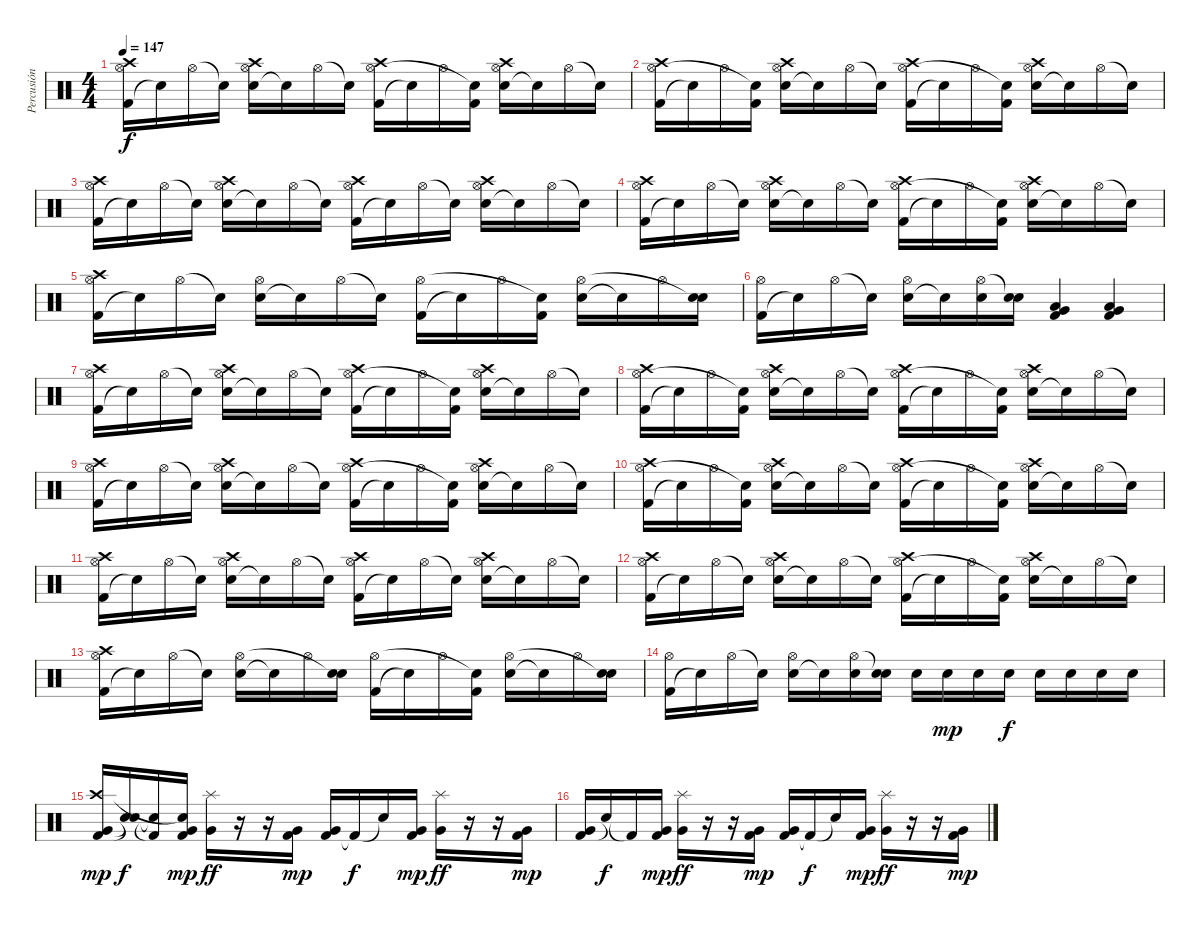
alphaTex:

\track ("Percusión" "Percusión") {instrument percussion}
\staff {score}
\articulation defaults
\ts (4 4)
\tempo 147
\clef neutral
\ks c
("Kick (hit) 2" "Hi-Hat (open)" "Crash high (hit)").16{dy f} "Snare (hit)"{t}.16 "Hi-Hat (open)".16 "Snare (hit)"{t}.16 ("Electric Snare (hit)" "Hi-Hat (open)" "Crash high (hit)").16 "Snare (hit)"{t}.16 "Hi-Hat (open)".16 "Snare (hit)"{t}.16 ("Kick (hit) 2" "Hi-Hat (open)" "Crash high (hit)").16 "Snare (hit)"{t}.16 "Hi-Hat (open)".16 ("Kick (hit) 2" "Snare (hit)"{t}).16 ("Electric Snare (hit)" "Hi-Hat (open)" "Crash high (hit)").16 "Snare (hit)"{t}.16 "Hi-Hat (open)".16 "Snare (hit)"{t}.16 |
("Kick (hit) 2" "Hi-Hat (open)" "Crash high (hit)").16 "Snare (hit)"{t}.16 "Hi-Hat (open)".16 ("Kick (hit) 2" "Snare (hit)"{t}).16 ("Electric Snare (hit)" "Hi-Hat (open)" "Crash high (hit)").16 "Snare (hit)"{t}.16 "Hi-Hat (open)".16 "Snare (hit)"{t}.16 ("Kick (hit) 2" "Hi-Hat (open)" "Crash high (hit)").16 "Snare (hit)"{t}.16 "Hi-Hat (open)".16 ("Kick (hit) 2" "Snare (hit)"{t}).16 ("Electric Snare (hit)" "Hi-Hat (open)" "Crash high (hit)").16 "Snare (hit)"{t}.16 "Hi-Hat (open)".16 "Snare (hit)"{t}.16 |
("Kick (hit) 2" "Hi-Hat (open)" "Crash high (hit)").16 "Snare (hit)"{t}.16 "Hi-Hat (open)".16 "Snare (hit)"{t}.16 ("Electric Snare (hit)" "Hi-Hat (open)" "Crash high (hit)").16 "Snare (hit)"{t}.16 "Hi-Hat (open)".16 "Snare (hit)"{t}.16 ("Kick (hit) 2" "Hi-Hat (open)" "Crash high (hit)").16 "Snare (hit)"{t}.16 "Hi-Hat (open)".16 "Snare (hit)"{t}.16 ("Electric Snare (hit)" "Hi-Hat (open)" "Crash high (hit)").16 "Snare (hit)"{t}.16 "Hi-Hat (open)".16 "Snare (hit)"{t}.16 |
("Kick (hit) 2" "Hi-Hat (open)" "Crash high (hit)").16 "Snare (hit)"{t}.16 "Hi-Hat (open)".16 "Snare (hit)"{t}.16 ("Electric Snare (hit)" "Hi-Hat (open)" "Crash high (hit)").16 "Snare (hit)"{t}.16 "Hi-Hat (open)".16 "Snare (hit)"{t}.16 ("Kick (hit) 2" "Hi-Hat (open)" "Crash high (hit)").16 "Snare (hit)"{t}.16 "Hi-Hat (open)".16 ("Kick (hit) 2" "Snare (hit)"{t}).16 ("Electric Snare (hit)" "Hi-Hat (open)" "Crash high (hit)").16 "Snare (hit)"{t}.16 "Hi-Hat (open)".16 "Snare (hit)"{t}.16 |
("Kick (hit) 2" "Hi-Hat (open)" "Crash high (hit)").16 "Snare (hit)"{t}.16 "Hi-Hat (open)".16 "Snare (hit)"{t}.16 ("Electric Snare (hit)" "Hi-Hat (open)").16 "Snare (hit)"{t}.16 "Hi-Hat (open)".16 "Snare (hit)"{t}.16 ("Kick (hit) 2" "Hi-Hat (open)").16 "Snare (hit)"{t}.16 "Hi-Hat (open)".16 ("Kick (hit) 2" "Snare (hit)"{t}).16 ("Electric Snare (hit)" "Hi-Hat (open)").16 "Snare (hit)"{t}.16 "Hi-Hat (open)".16 ("Electric Snare (hit)" "Snare (hit)"{t}).16 |
("Kick (hit) 2" "Hi-Hat (open)").16 "Snare (hit)"{t}.16 "Hi-Hat (open)".16 "Snare (hit)"{t}.16 ("Electric Snare (hit)" "Hi-Hat (open)").16 "Snare (hit)"{t}.16 ("Electric Snare (hit)" "Hi-Hat (open)").16 ("Electric Snare (hit)" "Snare (hit)"{t}).16 ("Kick (hit) 2" "Very Low Tom (hit)" "Low Floor Tom (hit)").4 ("Kick (hit) 2" "Very Low Tom (hit)" "Low Floor Tom (hit)").4 |
("Kick (hit) 2" "Hi-Hat (open)" "Crash high (hit)").16 "Snare (hit)"{t}.16 "Hi-Hat (open)".16 "Snare (hit)"{t}.16 ("Electric Snare (hit)" "Hi-Hat (open)" "Crash high (hit)").16 "Snare (hit)"{t}.16 "Hi-Hat (open)".16 "Snare (hit)"{t}.16 ("Kick (hit) 2" "Hi-Hat (open)" "Crash high (hit)").16 "Snare (hit)"{t}.16 "Hi-Hat (open)".16 ("Kick (hit) 2" "Snare (hit)"{t}).16 ("Electric Snare (hit)" "Hi-Hat (open)" "Crash high (hit)").16 "Snare (hit)"{t}.16 "Hi-Hat (open)".16 "Snare (hit)"{t}.16 |
("Kick (hit) 2" "Hi-Hat (open)" "Crash high (hit)").16 "Snare (hit)"{t}.16 "Hi-Hat (open)".16 ("Kick (hit) 2" "Snare (hit)"{t}).16 ("Electric Snare (hit)" "Hi-Hat (open)" "Crash high (hit)").16 "Snare (hit)"{t}.16 "Hi-Hat (open)".16 "Snare (hit)"{t}.16 ("Kick (hit) 2" "Hi-Hat (open)" "Crash high (hit)").16 "Snare (hit)"{t}.16 "Hi-Hat (open)".16 ("Kick (hit) 2" "Snare (hit)"{t}).16 ("Electric Snare (hit)" "Hi-Hat (open)" "Crash high (hit)").16 "Snare (hit)"{t}.16 "Hi-Hat (open)".16 "Snare (hit)"{t}.16 |
("Kick (hit) 2" "Hi-Hat (open)" "Crash high (hit)").16 "Snare (hit)"{t}.16 "Hi-Hat (open)".16 "Snare (hit)"{t}.16 ("Electric Snare (hit)" "Hi-Hat (open)" "Crash high (hit)").16 "Snare (hit)"{t}.16 "Hi-Hat (open)".16 "Snare (hit)"{t}.16 ("Kick (hit) 2" "Hi-Hat (open)" "Crash high (hit)").16 "Snare (hit)"{t}.16 "Hi-Hat (open)".16 ("Kick (hit) 2" "Snare (hit)"{t}).16 ("Electric Snare (hit)" "Hi-Hat (open)" "Crash high (hit)").16 "Snare (hit)"{t}.16 "Hi-Hat (open)".16 "Snare (hit)"{t}.16 |
("Kick (hit) 2" "Hi-Hat (open)" "Crash high (hit)").16 "Snare (hit)"{t}.16 "Hi-Hat (open)".16 ("Kick (hit) 2" "Snare (hit)"{t}).16 ("Electric Snare (hit)" "Hi-Hat (open)" "Crash high (hit)").16 "Snare (hit)"{t}.16 "Hi-Hat (open)".16 "Snare (hit)"{t}.16 ("Kick (hit) 2" "Hi-Hat (open)" "Crash high (hit)").16 "Snare (hit)"{t}.16 "Hi-Hat (open)".16 ("Kick (hit) 2" "Snare (hit)"{t}).16 ("Electric Snare (hit)" "Hi-Hat (open)" "Crash high (hit)").16 "Snare (hit)"{t}.16 "Hi-Hat (open)".16 "Snare (hit)"{t}.16 |
("Kick (hit) 2" "Hi-Hat (open)" "Crash high (hit)").16 "Snare (hit)"{t}.16 "Hi-Hat (open)".16 "Snare (hit)"{t}.16 ("Electric Snare (hit)" "Hi-Hat (open)" "Crash high (hit)").16 "Snare (hit)"{t}.16 "Hi-Hat (open)".16 "Snare (hit)"{t}.16 ("Kick (hit) 2" "Hi-Hat (open)" "Crash high (hit)").16 "Snare (hit)"{t}.16 "Hi-Hat (open)".16 "Snare (hit)"{t}.16 ("Electric Snare (hit)" "Hi-Hat (open)" "Crash high (hit)").16 "Snare (hit)"{t}.16 "Hi-Hat (open)".16 "Snare (hit)"{t}.16 |
("Kick (hit) 2" "Hi-Hat (open)" "Crash high (hit)").16 "Snare (hit)"{t}.16 "Hi-Hat (open)".16 "Snare (hit)"{t}.16 ("Electric Snare (hit)" "Hi-Hat (open)" "Crash high (hit)").16 "Snare (hit)"{t}.16 "Hi-Hat (open)".16 "Snare (hit)"{t}.16 ("Kick (hit) 2" "Hi-Hat (open)" "Crash high (hit)").16 "Snare (hit)"{t}.16 "Hi-Hat (open)".16 ("Kick (hit) 2" "Snare (hit)"{t}).16 ("Electric Snare (hit)" "Hi-Hat (open)" "Crash high (hit)").16 "Snare (hit)"{t}.16 "Hi-Hat (open)".16 "Snare (hit)"{t}.16 |
("Kick (hit) 2" "Hi-Hat (open)" "Crash high (hit)").16 "Snare (hit)"{t}.16 "Hi-Hat (open)".16 "Snare (hit)"{t}.16 ("Electric Snare (hit)" "Hi-Hat (open)").16 "Snare (hit)"{t}.16 "Hi-Hat (open)".16 ("Electric Snare (hit)" "Snare (hit)"{t}).16 ("Kick (hit) 2" "Hi-Hat (open)").16 "Snare (hit)"{t}.16 "Hi-Hat (open)".16 ("Kick (hit) 2" "Snare (hit)"{t}).16 ("Electric Snare (hit)" "Hi-Hat (open)").16 "Snare (hit)"{t}.16 "Hi-Hat (open)".16 ("Electric Snare (hit)" "Snare (hit)"{t}).16 |
("Kick (hit) 2" "Hi-Hat (open)").16 "Snare (hit)"{t}.16 "Hi-Hat (open)".16 "Snare (hit)"{t}.16 ("Electric Snare (hit)" "Hi-Hat (open)").16 "Snare (hit)"{t}.16 ("Electric Snare (hit)" "Hi-Hat (open)").16 ("Electric Snare (hit)" "Snare (hit)"{t}).16 "Electric Snare (hit)".16 "Electric Snare (hit)".16{dy mp} "Electric Snare (hit)".16 "Electric Snare (hit)".16{dy f} "Electric Snare (hit)".16 "Electric Snare (hit)".16 "Electric Snare (hit)".16 "Electric Snare (hit)".16 |
("Kick (hit) 2" "Very Low Tom (hit)" "Crash high (hit)").16{dy mp} ("Snare (hit)"{t} "Snare (hit)"{t}).16{dy f} ("Kick (hit) 2"{t} "Snare (hit)"{t}).16 ("Kick (hit) 2" "Very Low Tom (hit)" "Snare (hit)"{t}).16{dy mp} ("Very Low Tom (hit)" "Splash (hit)").16{dy ff} r.16 r.16 ("Kick (hit) 2" "Very Low Tom (hit)").16{dy mp} ("Kick (hit) 2" "Very Low Tom (hit)").16 "Kick (hit) 2"{t}.16{dy f} "Snare (hit)"{t}.16 ("Kick (hit) 2" "Very Low Tom (hit)").16{dy mp} ("Very Low Tom (hit)" "Splash (hit)").16{dy ff} r.16 r.16 ("Kick (hit) 2" "Very Low Tom (hit)").16{dy mp} |
("Kick (hit) 2" "Very Low Tom (hit)").16 "Snare (hit)"{t}.16{dy f} "Kick (hit) 2"{t}.16 ("Kick (hit) 2" "Very Low Tom (hit)").16{dy mp} ("Very Low Tom (hit)" "Splash (hit)").16{dy ff} r.16 r.16 ("Kick (hit) 2" "Very Low Tom (hit)").16{dy mp} ("Kick (hit) 2" "Very Low Tom (hit)").16 "Kick (hit) 2"{t}.16{dy f} "Snare (hit)"{t}.16 ("Kick (hit) 2" "Very Low Tom (hit)").16{dy mp} ("Very Low Tom (hit)" "Splash (hit)").16{dy ff} r.16 r.16 ("Kick (hit) 2" "Very Low Tom (hit)").16{dy mp}
